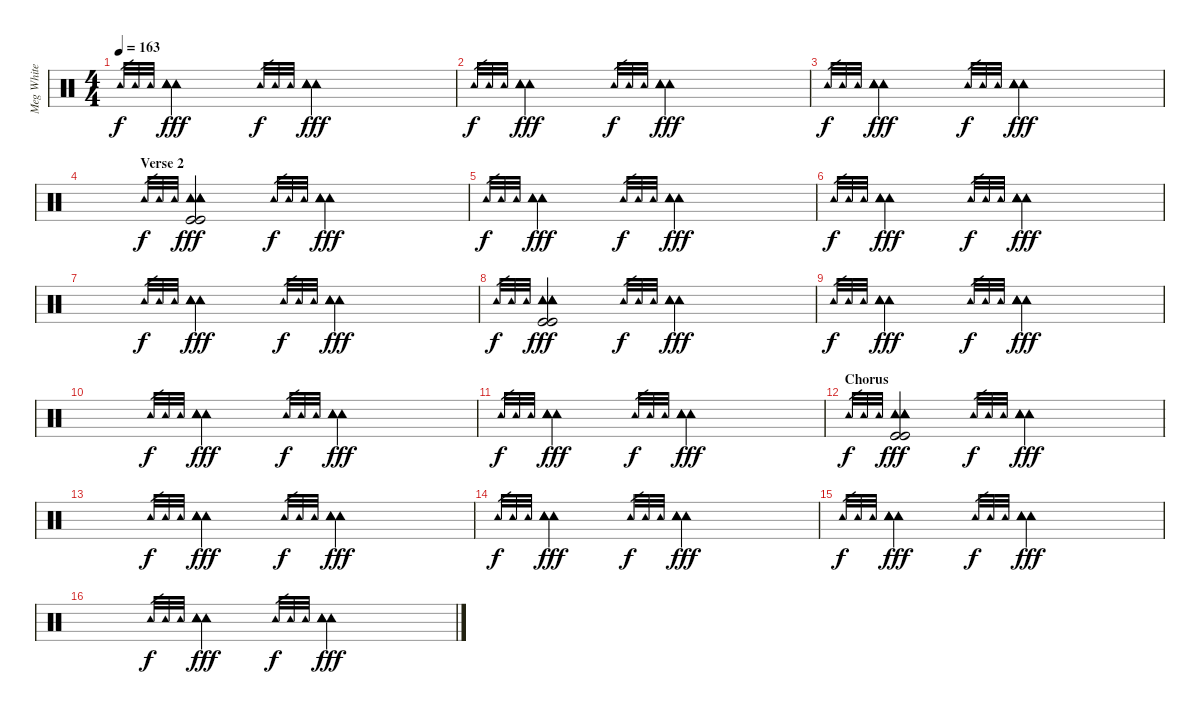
\track ("Meg White" "Meg White") {instrument percussion}
\staff {score}
\articulation defaults
\ts (4 4)
\tempo 163
\clef neutral
\ks c "Tambourine (hit)".32{gr dy f} "Tambourine (hit)".32{gr} "Tambourine (hit)".32{gr}
("Tambourine (hit)" "Tambourine (hit)" "Tambourine (hit)").2{dy fff} "Tambourine (hit)".32{gr dy f} "Tambourine (hit)".32{gr} "Tambourine (hit)".32{gr} ("Tambourine (hit)" "Tambourine (hit)" "Tambourine (hit)").2{dy fff} |
"Tambourine (hit)".32{gr dy f} "Tambourine (hit)".32{gr} "Tambourine (hit)".32{gr} ("Tambourine (hit)" "Tambourine (hit)" "Tambourine (hit)").2{dy fff} "Tambourine (hit)".32{gr dy f} "Tambourine (hit)".32{gr} "Tambourine (hit)".32{gr} ("Tambourine (hit)" "Tambourine (hit)" "Tambourine (hit)").2{dy fff} |
"Tambourine (hit)".32{gr dy f} "Tambourine (hit)".32{gr} "Tambourine (hit)".32{gr} ("Tambourine (hit)" "Tambourine (hit)" "Tambourine (hit)").2{dy fff} "Tambourine (hit)".32{gr dy f} "Tambourine (hit)".32{gr} "Tambourine (hit)".32{gr} ("Tambourine (hit)" "Tambourine (hit)" "Tambourine (hit)").2{dy fff} |
\section ("" "Verse 2")
"Tambourine (hit)".32{gr dy f} "Tambourine (hit)".32{gr} "Tambourine (hit)".32{gr} ("Tambourine (hit)" "Tambourine (hit)" "Tambourine (hit)" "Kick (hit)" "Kick (hit)").2{dy fff} "Tambourine (hit)".32{gr dy f} "Tambourine (hit)".32{gr} "Tambourine (hit)".32{gr} ("Tambourine (hit)" "Tambourine (hit)" "Tambourine (hit)").2{dy fff} |
"Tambourine (hit)".32{gr dy f} "Tambourine (hit)".32{gr} "Tambourine (hit)".32{gr} ("Tambourine (hit)" "Tambourine (hit)" "Tambourine (hit)").2{dy fff} "Tambourine (hit)".32{gr dy f} "Tambourine (hit)".32{gr} "Tambourine (hit)".32{gr} ("Tambourine (hit)" "Tambourine (hit)" "Tambourine (hit)").2{dy fff} |
"Tambourine (hit)".32{gr dy f} "Tambourine (hit)".32{gr} "Tambourine (hit)".32{gr} ("Tambourine (hit)" "Tambourine (hit)" "Tambourine (hit)").2{dy fff} "Tambourine (hit)".32{gr dy f} "Tambourine (hit)".32{gr} "Tambourine (hit)".32{gr} ("Tambourine (hit)" "Tambourine (hit)" "Tambourine (hit)").2{dy fff} |
"Tambourine (hit)".32{gr dy f} "Tambourine (hit)".32{gr} "Tambourine (hit)".32{gr} ("Tambourine (hit)" "Tambourine (hit)" "Tambourine (hit)").2{dy fff} "Tambourine (hit)".32{gr dy f} "Tambourine (hit)".32{gr} "Tambourine (hit)".32{gr} ("Tambourine (hit)" "Tambourine (hit)" "Tambourine (hit)").2{dy fff} |
"Tambourine (hit)".32{gr dy f} "Tambourine (hit)".32{gr} "Tambourine (hit)".32{gr} ("Tambourine (hit)" "Tambourine (hit)" "Tambourine (hit)" "Kick (hit)" "Kick (hit)").2{dy fff} "Tambourine (hit)".32{gr dy f} "Tambourine (hit)".32{gr} "Tambourine (hit)".32{gr} ("Tambourine (hit)" "Tambourine (hit)" "Tambourine (hit)").2{dy fff} |
"Tambourine (hit)".32{gr dy f} "Tambourine (hit)".32{gr} "Tambourine (hit)".32{gr} ("Tambourine (hit)" "Tambourine (hit)" "Tambourine (hit)").2{dy fff} "Tambourine (hit)".32{gr dy f} "Tambourine (hit)".32{gr} "Tambourine (hit)".32{gr} ("Tambourine (hit)" "Tambourine (hit)" "Tambourine (hit)").2{dy fff} |
"Tambourine (hit)".32{gr dy f} "Tambourine (hit)".32{gr} "Tambourine (hit)".32{gr} ("Tambourine (hit)" "Tambourine (hit)" "Tambourine (hit)").2{dy fff} "Tambourine (hit)".32{gr dy f} "Tambourine (hit)".32{gr} "Tambourine (hit)".32{gr} ("Tambourine (hit)" "Tambourine (hit)" "Tambourine (hit)").2{dy fff} |
"Tambourine (hit)".32{gr dy f} "Tambourine (hit)".32{gr} "Tambourine (hit)".32{gr} ("Tambourine (hit)" "Tambourine (hit)" "Tambourine (hit)").2{dy fff} "Tambourine (hit)".32{gr dy f} "Tambourine (hit)".32{gr} "Tambourine (hit)".32{gr} ("Tambourine (hit)" "Tambourine (hit)" "Tambourine (hit)").2{dy fff} |
\section ("" "Chorus")
"Tambourine (hit)".32{gr dy f} "Tambourine (hit)".32{gr} "Tambourine (hit)".32{gr} ("Tambourine (hit)" "Tambourine (hit)" "Tambourine (hit)" "Kick (hit)" "Kick (hit)").2{dy fff} "Tambourine (hit)".32{gr dy f} "Tambourine (hit)".32{gr} "Tambourine (hit)".32{gr} ("Tambourine (hit)" "Tambourine (hit)" "Tambourine (hit)").2{dy fff} |
"Tambourine (hit)".32{gr dy f} "Tambourine (hit)".32{gr} "Tambourine (hit)".32{gr} ("Tambourine (hit)" "Tambourine (hit)" "Tambourine (hit)").2{dy fff} "Tambourine (hit)".32{gr dy f} "Tambourine (hit)".32{gr} "Tambourine (hit)".32{gr} ("Tambourine (hit)" "Tambourine (hit)" "Tambourine (hit)").2{dy fff} |
"Tambourine (hit)".32{gr dy f} "Tambourine (hit)".32{gr} "Tambourine (hit)".32{gr} ("Tambourine (hit)" "Tambourine (hit)" "Tambourine (hit)").2{dy fff} "Tambourine (hit)".32{gr dy f} "Tambourine (hit)".32{gr} "Tambourine (hit)".32{gr} ("Tambourine (hit)" "Tambourine (hit)" "Tambourine (hit)").2{dy fff} |
"Tambourine (hit)".32{gr dy f} "Tambourine (hit)".32{gr} "Tambourine (hit)".32{gr} ("Tambourine (hit)" "Tambourine (hit)" "Tambourine (hit)").2{dy fff} "Tambourine (hit)".32{gr dy f} "Tambourine (hit)".32{gr} "Tambourine (hit)".32{gr} ("Tambourine (hit)" "Tambourine (hit)" "Tambourine (hit)").2{dy fff} |
"Tambourine (hit)".32{gr dy f} "Tambourine (hit)".32{gr} "Tambourine (hit)".32{gr} ("Tambourine (hit)" "Tambourine (hit)" "Tambourine (hit)").2{dy fff} "Tambourine (hit)".32{gr dy f} "Tambourine (hit)".32{gr} "Tambourine (hit)".32{gr} ("Tambourine (hit)" "Tambourine (hit)" "Tambourine (hit)").2{dy fff}
